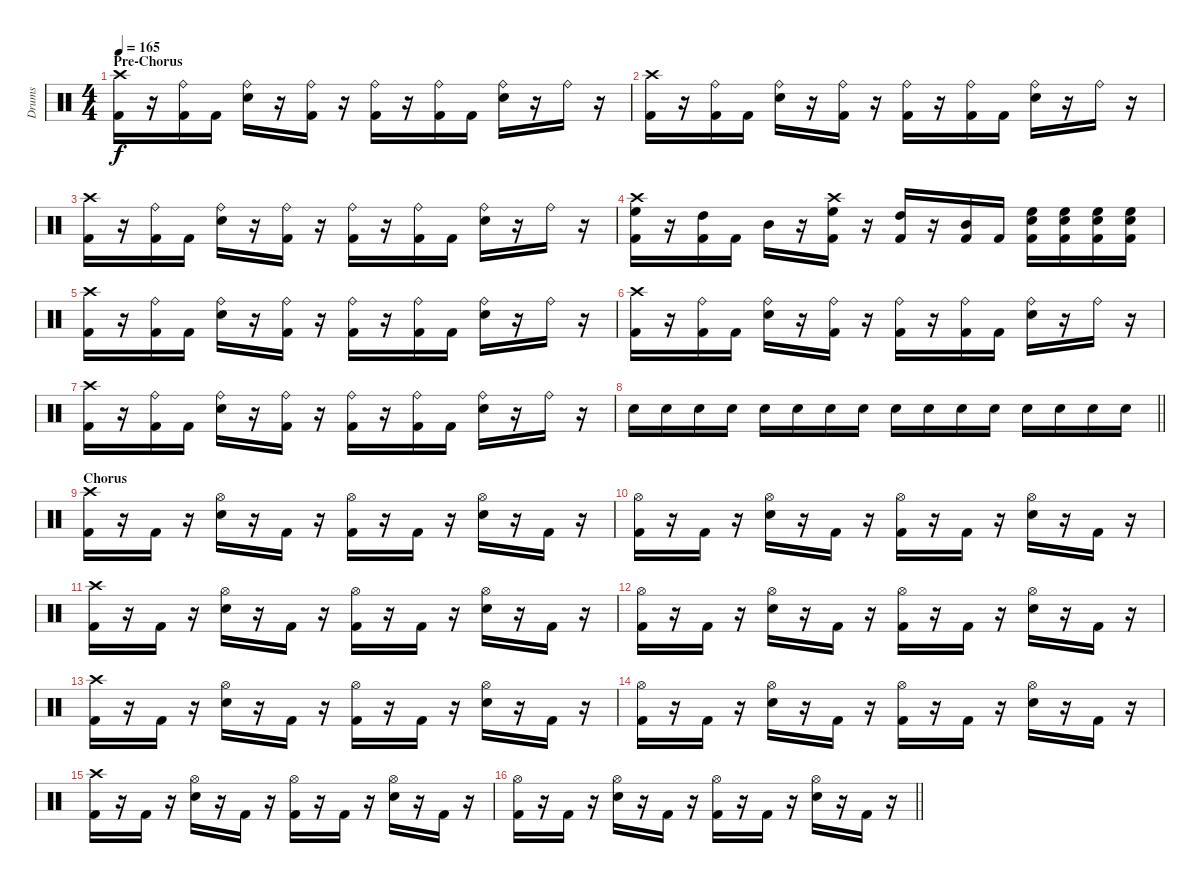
\track ("Drums" "Drums") {instrument percussion}
\staff {score}
\articulation defaults
\ts (4 4)
\section ("" "Pre-Chorus")
\tempo 165
\clef neutral
\ks c
("Crash high (hit)" "Kick (hit) 2").16{dy f} r.16 ("Ride (bell)" "Kick (hit) 2").16 "Kick (hit) 2".16 ("Ride (bell)" "Snare (hit) 2").16 r.16 ("Ride (bell)" "Kick (hit) 2").16 r.16 ("Ride (bell)" "Kick (hit) 2").16 r.16 ("Ride (bell)" "Kick (hit) 2").16 "Kick (hit) 2".16 ("Ride (bell)" "Snare (hit) 2").16 r.16 "Ride (bell)".16 r.16 |
("Crash high (hit)" "Kick (hit) 2").16 r.16 ("Ride (bell)" "Kick (hit) 2").16 "Kick (hit) 2".16 ("Ride (bell)" "Snare (hit) 2").16 r.16 ("Ride (bell)" "Kick (hit) 2").16 r.16 ("Ride (bell)" "Kick (hit) 2").16 r.16 ("Ride (bell)" "Kick (hit) 2").16 "Kick (hit) 2".16 ("Ride (bell)" "Snare (hit) 2").16 r.16 "Ride (bell)".16 r.16 |
("Crash high (hit)" "Kick (hit) 2").16 r.16 ("Ride (bell)" "Kick (hit) 2").16 "Kick (hit) 2".16 ("Ride (bell)" "Snare (hit) 2").16 r.16 ("Ride (bell)" "Kick (hit) 2").16 r.16 ("Ride (bell)" "Kick (hit) 2").16 r.16 ("Ride (bell)" "Kick (hit) 2").16 "Kick (hit) 2".16 ("Ride (bell)" "Snare (hit) 2").16 r.16 "Ride (bell)".16 r.16 |
("Crash high (hit)" "High Floor Tom (hit)" "Kick (hit) 2").16 r.16 ("High Tom (hit)" "Kick (hit) 2").16 "Kick (hit) 2".16 "Mid Tom (hit)".16 r.16 ("Crash high (hit)" "High Floor Tom (hit)" "Kick (hit) 2").16 r.16 ("High Tom (hit)" "Kick (hit) 2").16 r.16 ("Mid Tom (hit)" "Kick (hit) 2").16 "Kick (hit) 2".16 ("High Floor Tom (hit)" "Snare (hit) 2" "Kick (hit) 2").16 ("High Floor Tom (hit)" "Snare (hit) 2" "Kick (hit) 2").16 ("High Floor Tom (hit)" "Snare (hit) 2" "Kick (hit) 2").16 ("High Floor Tom (hit)" "Snare (hit) 2" "Kick (hit) 2").16 |
("Crash high (hit)" "Kick (hit) 2").16 r.16 ("Ride (bell)" "Kick (hit) 2").16 "Kick (hit) 2".16 ("Ride (bell)" "Snare (hit) 2").16 r.16 ("Ride (bell)" "Kick (hit) 2").16 r.16 ("Ride (bell)" "Kick (hit) 2").16 r.16 ("Ride (bell)" "Kick (hit) 2").16 "Kick (hit) 2".16 ("Ride (bell)" "Snare (hit) 2").16 r.16 "Ride (bell)".16 r.16 |
("Crash high (hit)" "Kick (hit) 2").16 r.16 ("Ride (bell)" "Kick (hit) 2").16 "Kick (hit) 2".16 ("Ride (bell)" "Snare (hit) 2").16 r.16 ("Ride (bell)" "Kick (hit) 2").16 r.16 ("Ride (bell)" "Kick (hit) 2").16 r.16 ("Ride (bell)" "Kick (hit) 2").16 "Kick (hit) 2".16 ("Ride (bell)" "Snare (hit) 2").16 r.16 "Ride (bell)".16 r.16 |
("Crash high (hit)" "Kick (hit) 2").16 r.16 ("Ride (bell)" "Kick (hit) 2").16 "Kick (hit) 2".16 ("Ride (bell)" "Snare (hit) 2").16 r.16 ("Ride (bell)" "Kick (hit) 2").16 r.16 ("Ride (bell)" "Kick (hit) 2").16 r.16 ("Ride (bell)" "Kick (hit) 2").16 "Kick (hit) 2".16 ("Ride (bell)" "Snare (hit) 2").16 r.16 "Ride (bell)".16 r.16 |
\barLineRight lightlight "Snare (hit) 2".16 "Snare (hit) 2".16 "Snare (hit) 2".16 "Snare (hit) 2".16 "Snare (hit) 2".16 "Snare (hit) 2".16 "Snare (hit) 2".16 "Snare (hit) 2".16 "Snare (hit) 2".16 "Snare (hit) 2".16 "Snare (hit) 2".16 "Snare (hit) 2".16 "Snare (hit) 2".16 "Snare (hit) 2".16 "Snare (hit) 2".16 "Snare (hit) 2".16
|
\section ("" "Chorus")
("Crash high (hit)" "Kick (hit) 2").16 r.16 "Kick (hit) 2".16 r.16 ("Hi-Hat (open)" "Snare (hit) 2").16 r.16 "Kick (hit) 2".16 r.16 ("Hi-Hat (open)" "Kick (hit) 2").16 r.16 "Kick (hit) 2".16 r.16 ("Hi-Hat (open)" "Snare (hit) 2").16 r.16 "Kick (hit) 2".16 r.16 |
("Hi-Hat (open)" "Kick (hit) 2").16 r.16 "Kick (hit) 2".16 r.16 ("Hi-Hat (open)" "Snare (hit) 2").16 r.16 "Kick (hit) 2".16 r.16 ("Hi-Hat (open)" "Kick (hit) 2").16 r.16 "Kick (hit) 2".16 r.16 ("Hi-Hat (open)" "Snare (hit) 2").16 r.16 "Kick (hit) 2".16 r.16 |
("Crash high (hit)" "Kick (hit) 2").16 r.16 "Kick (hit) 2".16 r.16 ("Hi-Hat (open)" "Snare (hit) 2").16 r.16 "Kick (hit) 2".16 r.16 ("Hi-Hat (open)" "Kick (hit) 2").16 r.16 "Kick (hit) 2".16 r.16 ("Hi-Hat (open)" "Snare (hit) 2").16 r.16 "Kick (hit) 2".16 r.16 |
("Hi-Hat (open)" "Kick (hit) 2").16 r.16 "Kick (hit) 2".16 r.16 ("Hi-Hat (open)" "Snare (hit) 2").16 r.16 "Kick (hit) 2".16 r.16 ("Hi-Hat (open)" "Kick (hit) 2").16 r.16 "Kick (hit) 2".16 r.16 ("Hi-Hat (open)" "Snare (hit) 2").16 r.16 "Kick (hit) 2".16 r.16 |
("Crash high (hit)" "Kick (hit) 2").16 r.16 "Kick (hit) 2".16 r.16 ("Hi-Hat (open)" "Snare (hit) 2").16 r.16 "Kick (hit) 2".16 r.16 ("Hi-Hat (open)" "Kick (hit) 2").16 r.16 "Kick (hit) 2".16 r.16 ("Hi-Hat (open)" "Snare (hit) 2").16 r.16 "Kick (hit) 2".16 r.16 |
("Hi-Hat (open)" "Kick (hit) 2").16 r.16 "Kick (hit) 2".16 r.16 ("Hi-Hat (open)" "Snare (hit) 2").16 r.16 "Kick (hit) 2".16 r.16 ("Hi-Hat (open)" "Kick (hit) 2").16 r.16 "Kick (hit) 2".16 r.16 ("Hi-Hat (open)" "Snare (hit) 2").16 r.16 "Kick (hit) 2".16 r.16 |
("Crash high (hit)" "Kick (hit) 2").16 r.16 "Kick (hit) 2".16 r.16 ("Hi-Hat (open)" "Snare (hit) 2").16 r.16 "Kick (hit) 2".16 r.16 ("Hi-Hat (open)" "Kick (hit) 2").16 r.16 "Kick (hit) 2".16 r.16 ("Hi-Hat (open)" "Snare (hit) 2").16 r.16 "Kick (hit) 2".16 r.16 |
\barLineRight lightlight
("Hi-Hat (open)" "Kick (hit) 2").16 r.16 "Kick (hit) 2".16 r.16 ("Hi-Hat (open)" "Snare (hit) 2").16 r.16 "Kick (hit) 2".16 r.16 ("Hi-Hat (open)" "Kick (hit) 2").16 r.16 "Kick (hit) 2".16 r.16 ("Hi-Hat (open)" "Snare (hit) 2").16 r.16 "Kick (hit) 2".16 r.16
